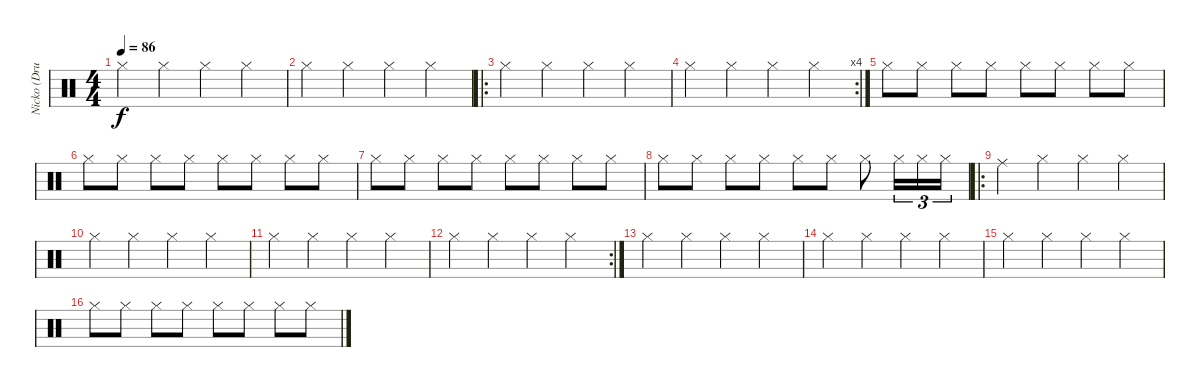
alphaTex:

\track ("Nicko (Drums)" "Nicko (Dru") {instrument percussion}
\staff {score}
\articulation defaults
\ts (4 4)
\tempo 86
\clef neutral
\ks c "Hi-Hat (closed)".4{dy f} "Hi-Hat (closed)".4 "Hi-Hat (closed)".4 "Hi-Hat (closed)".4
|
"Hi-Hat (closed)".4 "Hi-Hat (closed)".4 "Hi-Hat (closed)".4 "Hi-Hat (closed)".4 |
\ro "Hi-Hat (closed)".4 "Hi-Hat (closed)".4 "Hi-Hat (closed)".4 "Hi-Hat (closed)".4
|
\rc 4 "Hi-Hat (closed)".4 "Hi-Hat (closed)".4 "Hi-Hat (closed)".4 "Hi-Hat (closed)".4
|
"Hi-Hat (closed)".8 "Hi-Hat (closed)".8 "Hi-Hat (closed)".8 "Hi-Hat (closed)".8 "Hi-Hat (closed)".8 "Hi-Hat (closed)".8 "Hi-Hat (closed)".8 "Hi-Hat (closed)".8 |
"Hi-Hat (closed)".8 "Hi-Hat (closed)".8 "Hi-Hat (closed)".8 "Hi-Hat (closed)".8 "Hi-Hat (closed)".8 "Hi-Hat (closed)".8 "Hi-Hat (closed)".8 "Hi-Hat (closed)".8 |
"Hi-Hat (closed)".8 "Hi-Hat (closed)".8 "Hi-Hat (closed)".8 "Hi-Hat (closed)".8 "Hi-Hat (closed)".8 "Hi-Hat (closed)".8 "Hi-Hat (closed)".8 "Hi-Hat (closed)".8 |
"Hi-Hat (closed)".8 "Hi-Hat (closed)".8 "Hi-Hat (closed)".8 "Hi-Hat (closed)".8 "Hi-Hat (closed)".8 "Hi-Hat (closed)".8 "Hi-Hat (closed)".8 "Hi-Hat (closed)".16{tu (3 2)} "Hi-Hat (closed)".16{tu (3 2)} "Hi-Hat (closed)".16{tu (3 2)} |
\ro "Ride (middle)".4 "Hi-Hat (closed)".4 "Hi-Hat (closed)".4 "Hi-Hat (closed)".4
|
"Hi-Hat (closed)".4 "Hi-Hat (closed)".4 "Hi-Hat (closed)".4 "Hi-Hat (closed)".4 |
"Hi-Hat (closed)".4 "Hi-Hat (closed)".4 "Hi-Hat (closed)".4 "Hi-Hat (closed)".4 |
\rc 2 "Hi-Hat (closed)".4 "Hi-Hat (closed)".4 "Hi-Hat (closed)".4 "Hi-Hat (closed)".4
|
"Hi-Hat (closed)".4 "Hi-Hat (closed)".4 "Hi-Hat (closed)".4 "Hi-Hat (closed)".4 |
"Hi-Hat (closed)".4 "Hi-Hat (closed)".4 "Hi-Hat (closed)".4 "Hi-Hat (closed)".4 |
"Hi-Hat (closed)".4 "Hi-Hat (closed)".4 "Hi-Hat (closed)".4 "Hi-Hat (closed)".4 |
"Hi-Hat (closed)".8 "Hi-Hat (closed)".8 "Hi-Hat (closed)".8 "Hi-Hat (closed)".8 "Hi-Hat (closed)".8 "Hi-Hat (closed)".8 "Hi-Hat (closed)".8 "Hi-Hat (closed)".8
